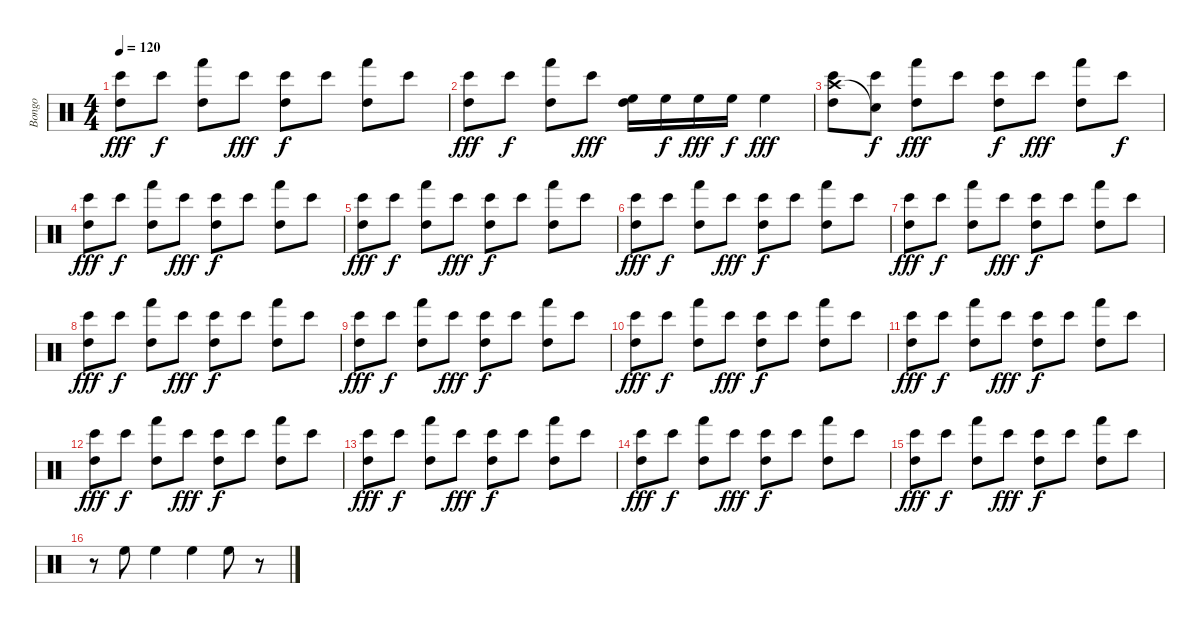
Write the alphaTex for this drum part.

\track ("Bongo" "Bongo") {instrument percussion}
\staff {score}
\articulation defaults
\ts (4 4)
\tempo 120
\clef neutral
\ks c
("Bongo High (hit)" "High Tom (hit)").8{dy fff} "Bongo High (hit)".8{dy f} ("Hand (hit)" "High Tom (hit)").8 "Bongo High (hit)".8{dy fff} ("Bongo High (hit)" "High Tom (hit)").8{dy f} "Bongo High (hit)".8 ("Hand (hit)" "High Tom (hit)").8 "Bongo High (hit)".8 |
("Bongo High (hit)" "High Tom (hit)").8{dy fff} "Bongo High (hit)".8{dy f} ("Hand (hit)" "High Tom (hit)").8 "Bongo High (hit)".8{dy fff} ("High Floor Tom (hit)" "High Tom (hit)").16 "High Floor Tom (hit)".16{dy f} "High Floor Tom (hit)".16{dy fff} "High Floor Tom (hit)".16{dy f} "High Floor Tom (hit)".4{dy fff} |
("Crash high (hit)" "Bongo High (hit)" "High Tom (hit)").8 ("Snare (hit)"{t} "Bongo High (hit)").8{dy f} ("Hand (hit)" "High Tom (hit)").8{dy fff} "Bongo High (hit)".8 ("Bongo High (hit)" "High Tom (hit)").8{dy f} "Bongo High (hit)".8{dy fff} ("Hand (hit)" "High Tom (hit)").8 "Bongo High (hit)".8{dy f} |
("Bongo High (hit)" "High Tom (hit)").8{dy fff} "Bongo High (hit)".8{dy f} ("Hand (hit)" "High Tom (hit)").8 "Bongo High (hit)".8{dy fff} ("Bongo High (hit)" "High Tom (hit)").8{dy f} "Bongo High (hit)".8 ("Hand (hit)" "High Tom (hit)").8 "Bongo High (hit)".8 |
("Bongo High (hit)" "High Tom (hit)").8{dy fff} "Bongo High (hit)".8{dy f} ("Hand (hit)" "High Tom (hit)").8 "Bongo High (hit)".8{dy fff} ("Bongo High (hit)" "High Tom (hit)").8{dy f} "Bongo High (hit)".8 ("Hand (hit)" "High Tom (hit)").8 "Bongo High (hit)".8 |
("Bongo High (hit)" "High Tom (hit)").8{dy fff} "Bongo High (hit)".8{dy f} ("Hand (hit)" "High Tom (hit)").8 "Bongo High (hit)".8{dy fff} ("Bongo High (hit)" "High Tom (hit)").8{dy f} "Bongo High (hit)".8 ("Hand (hit)" "High Tom (hit)").8 "Bongo High (hit)".8 |
("Bongo High (hit)" "High Tom (hit)").8{dy fff} "Bongo High (hit)".8{dy f} ("Hand (hit)" "High Tom (hit)").8 "Bongo High (hit)".8{dy fff} ("Bongo High (hit)" "High Tom (hit)").8{dy f} "Bongo High (hit)".8 ("Hand (hit)" "High Tom (hit)").8 "Bongo High (hit)".8 |
("Bongo High (hit)" "High Tom (hit)").8{dy fff} "Bongo High (hit)".8{dy f} ("Hand (hit)" "High Tom (hit)").8 "Bongo High (hit)".8{dy fff} ("Bongo High (hit)" "High Tom (hit)").8{dy f} "Bongo High (hit)".8 ("Hand (hit)" "High Tom (hit)").8 "Bongo High (hit)".8 |
("Bongo High (hit)" "High Tom (hit)").8{dy fff} "Bongo High (hit)".8{dy f} ("Hand (hit)" "High Tom (hit)").8 "Bongo High (hit)".8{dy fff} ("Bongo High (hit)" "High Tom (hit)").8{dy f} "Bongo High (hit)".8 ("Hand (hit)" "High Tom (hit)").8 "Bongo High (hit)".8 |
("Bongo High (hit)" "High Tom (hit)").8{dy fff} "Bongo High (hit)".8{dy f} ("Hand (hit)" "High Tom (hit)").8 "Bongo High (hit)".8{dy fff} ("Bongo High (hit)" "High Tom (hit)").8{dy f} "Bongo High (hit)".8 ("Hand (hit)" "High Tom (hit)").8 "Bongo High (hit)".8 |
("Bongo High (hit)" "High Tom (hit)").8{dy fff} "Bongo High (hit)".8{dy f} ("Hand (hit)" "High Tom (hit)").8 "Bongo High (hit)".8{dy fff} ("Bongo High (hit)" "High Tom (hit)").8{dy f} "Bongo High (hit)".8 ("Hand (hit)" "High Tom (hit)").8 "Bongo High (hit)".8 |
("Bongo High (hit)" "High Tom (hit)").8{dy fff} "Bongo High (hit)".8{dy f} ("Hand (hit)" "High Tom (hit)").8 "Bongo High (hit)".8{dy fff} ("Bongo High (hit)" "High Tom (hit)").8{dy f} "Bongo High (hit)".8 ("Hand (hit)" "High Tom (hit)").8 "Bongo High (hit)".8 |
("Bongo High (hit)" "High Tom (hit)").8{dy fff} "Bongo High (hit)".8{dy f} ("Hand (hit)" "High Tom (hit)").8 "Bongo High (hit)".8{dy fff} ("Bongo High (hit)" "High Tom (hit)").8{dy f} "Bongo High (hit)".8 ("Hand (hit)" "High Tom (hit)").8 "Bongo High (hit)".8 |
("Bongo High (hit)" "High Tom (hit)").8{dy fff} "Bongo High (hit)".8{dy f} ("Hand (hit)" "High Tom (hit)").8 "Bongo High (hit)".8{dy fff} ("Bongo High (hit)" "High Tom (hit)").8{dy f} "Bongo High (hit)".8 ("Hand (hit)" "High Tom (hit)").8 "Bongo High (hit)".8 |
("Bongo High (hit)" "High Tom (hit)").8{dy fff} "Bongo High (hit)".8{dy f} ("Hand (hit)" "High Tom (hit)").8 "Bongo High (hit)".8{dy fff} ("Bongo High (hit)" "High Tom (hit)").8{dy f} "Bongo High (hit)".8 ("Hand (hit)" "High Tom (hit)").8 "Bongo High (hit)".8 |
r.8 "High Floor Tom (hit)".8 "High Floor Tom (hit)".4 "High Floor Tom (hit)".4 "High Floor Tom (hit)".8 r.8
